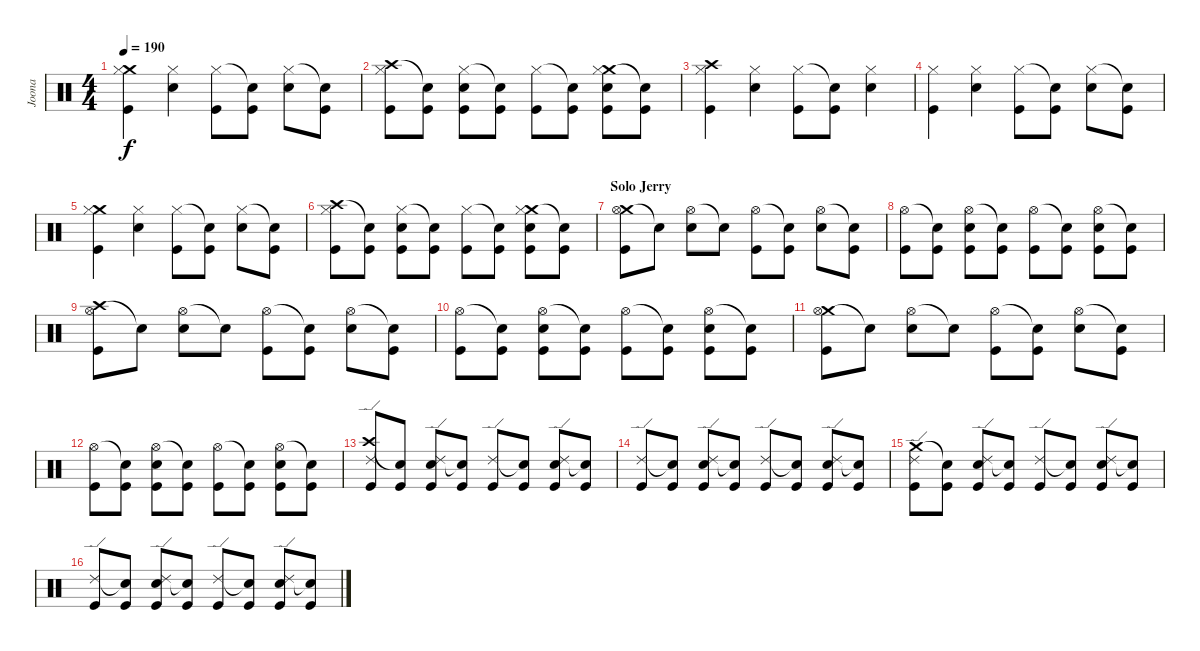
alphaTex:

\track ("Joona" "Joona") {instrument percussion}
\staff {score}
\articulation defaults
\ts (4 4)
\tempo 190
\clef neutral
\ks c
("Crash medium (hit)" "Hi-Hat (closed)" "Kick (hit)").4{dy f} ("Hi-Hat (closed)" "Snare (hit) 2").4 ("Hi-Hat (closed)" "Kick (hit)").8 ("Snare (hit)"{t} "Kick (hit)").8 ("Hi-Hat (closed)" "Snare (hit) 2").8 ("Snare (hit)"{t} "Kick (hit)").8 |
("Crash high (hit)" "Hi-Hat (closed)" "Kick (hit)").8 ("Snare (hit)"{t} "Kick (hit)").8 ("Hi-Hat (closed)" "Snare (hit) 2" "Kick (hit)").8 ("Snare (hit)"{t} "Kick (hit)").8 ("Hi-Hat (closed)" "Kick (hit)").8 ("Snare (hit)"{t} "Kick (hit)").8 ("Crash medium (hit)" "Hi-Hat (closed)" "Snare (hit) 2" "Kick (hit)").8 ("Snare (hit)"{t} "Kick (hit)").8 |
("Crash high (hit)" "Hi-Hat (closed)" "Kick (hit)").4 ("Hi-Hat (closed)" "Snare (hit) 2").4 ("Hi-Hat (closed)" "Kick (hit)").8 ("Snare (hit)"{t} "Kick (hit)").8 ("Hi-Hat (closed)" "Snare (hit) 2").4 |
("Hi-Hat (closed)" "Kick (hit)").4 ("Hi-Hat (closed)" "Snare (hit) 2").4 ("Hi-Hat (closed)" "Kick (hit)").8 ("Snare (hit)"{t} "Kick (hit)").8 ("Hi-Hat (closed)" "Snare (hit) 2").8 ("Snare (hit)"{t} "Kick (hit)").8 |
("Crash medium (hit)" "Hi-Hat (closed)" "Kick (hit)").4 ("Hi-Hat (closed)" "Snare (hit) 2").4 ("Hi-Hat (closed)" "Kick (hit)").8 ("Snare (hit)"{t} "Kick (hit)").8 ("Hi-Hat (closed)" "Snare (hit) 2").8 ("Snare (hit)"{t} "Kick (hit)").8 |
("Crash high (hit)" "Hi-Hat (closed)" "Kick (hit)").8 ("Snare (hit)"{t} "Kick (hit)").8 ("Hi-Hat (closed)" "Snare (hit) 2" "Kick (hit)").8 ("Snare (hit)"{t} "Kick (hit)").8 ("Hi-Hat (closed)" "Kick (hit)").8 ("Snare (hit)"{t} "Kick (hit)").8 ("Crash medium (hit)" "Hi-Hat (closed)" "Snare (hit) 2" "Kick (hit)").8 ("Snare (hit)"{t} "Kick (hit)").8 |
\section ("" "Solo Jerry")
("Crash medium (hit)" "Hi-Hat (open)" "Kick (hit)").8 "Snare (hit)"{t}.8 ("Hi-Hat (open)" "Snare (hit) 2").8 "Snare (hit)"{t}.8 ("Hi-Hat (open)" "Kick (hit)").8 ("Snare (hit)"{t} "Kick (hit)").8 ("Hi-Hat (open)" "Snare (hit) 2").8 ("Snare (hit)"{t} "Kick (hit)").8 |
("Hi-Hat (open)" "Kick (hit)").8 ("Snare (hit)"{t} "Kick (hit)").8 ("Hi-Hat (open)" "Snare (hit) 2" "Kick (hit)").8 ("Snare (hit)"{t} "Kick (hit)").8 ("Hi-Hat (open)" "Kick (hit)").8 ("Snare (hit)"{t} "Kick (hit)").8 ("Hi-Hat (open)" "Snare (hit) 2" "Kick (hit)").8 ("Snare (hit)"{t} "Kick (hit)").8 |
("Crash high (hit)" "Hi-Hat (open)" "Kick (hit)").8 "Snare (hit)"{t}.8 ("Hi-Hat (open)" "Snare (hit) 2").8 "Snare (hit)"{t}.8 ("Hi-Hat (open)" "Kick (hit)").8 ("Snare (hit)"{t} "Kick (hit)").8 ("Hi-Hat (open)" "Snare (hit) 2").8 ("Snare (hit)"{t} "Kick (hit)").8 |
("Hi-Hat (open)" "Kick (hit)").8 ("Snare (hit)"{t} "Kick (hit)").8 ("Hi-Hat (open)" "Snare (hit) 2" "Kick (hit)").8 ("Snare (hit)"{t} "Kick (hit)").8 ("Hi-Hat (open)" "Kick (hit)").8 ("Snare (hit)"{t} "Kick (hit)").8 ("Hi-Hat (open)" "Snare (hit) 2" "Kick (hit)").8 ("Snare (hit)"{t} "Kick (hit)").8 |
("Crash medium (hit)" "Hi-Hat (open)" "Kick (hit)").8 "Snare (hit)"{t}.8 ("Hi-Hat (open)" "Snare (hit) 2").8 "Snare (hit)"{t}.8 ("Hi-Hat (open)" "Kick (hit)").8 ("Snare (hit)"{t} "Kick (hit)").8 ("Hi-Hat (open)" "Snare (hit) 2").8 ("Snare (hit)"{t} "Kick (hit)").8 |
("Hi-Hat (open)" "Kick (hit)").8 ("Snare (hit)"{t} "Kick (hit)").8 ("Hi-Hat (open)" "Snare (hit) 2" "Kick (hit)").8 ("Snare (hit)"{t} "Kick (hit)").8 ("Hi-Hat (open)" "Kick (hit)").8 ("Snare (hit)"{t} "Kick (hit)").8 ("Hi-Hat (open)" "Snare (hit) 2" "Kick (hit)").8 ("Snare (hit)"{t} "Kick (hit)").8 |
("Crash high (hit)" "Ride (edge) 2" "Kick (hit)").8 ("Snare (hit)"{t} "Kick (hit)").8 ("Ride (edge) 2" "Snare (hit) 2" "Kick (hit)").8 ("Snare (hit)"{t} "Kick (hit)").8 ("Ride (edge) 2" "Kick (hit)").8 ("Snare (hit)"{t} "Kick (hit)").8 ("Ride (edge) 2" "Snare (hit) 2" "Kick (hit)").8 ("Snare (hit)"{t} "Kick (hit)").8 |
("Ride (edge) 2" "Kick (hit)").8 ("Snare (hit)"{t} "Kick (hit)").8 ("Ride (edge) 2" "Snare (hit) 2" "Kick (hit)").8 ("Snare (hit)"{t} "Kick (hit)").8 ("Ride (edge) 2" "Kick (hit)").8 ("Snare (hit)"{t} "Kick (hit)").8 ("Ride (edge) 2" "Snare (hit) 2" "Kick (hit)").8 ("Snare (hit)"{t} "Kick (hit)").8 |
("Crash medium (hit)" "Ride (edge) 2" "Kick (hit)").8 ("Snare (hit)"{t} "Kick (hit)").8 ("Ride (edge) 2" "Snare (hit) 2" "Kick (hit)").8 ("Snare (hit)"{t} "Kick (hit)").8 ("Ride (edge) 2" "Kick (hit)").8 ("Snare (hit)"{t} "Kick (hit)").8 ("Ride (edge) 2" "Snare (hit) 2" "Kick (hit)").8 ("Snare (hit)"{t} "Kick (hit)").8 |
("Ride (edge) 2" "Kick (hit)").8 ("Snare (hit)"{t} "Kick (hit)").8 ("Ride (edge) 2" "Snare (hit) 2" "Kick (hit)").8 ("Snare (hit)"{t} "Kick (hit)").8 ("Ride (edge) 2" "Kick (hit)").8 ("Snare (hit)"{t} "Kick (hit)").8 ("Ride (edge) 2" "Snare (hit) 2" "Kick (hit)").8 ("Snare (hit)"{t} "Kick (hit)").8
